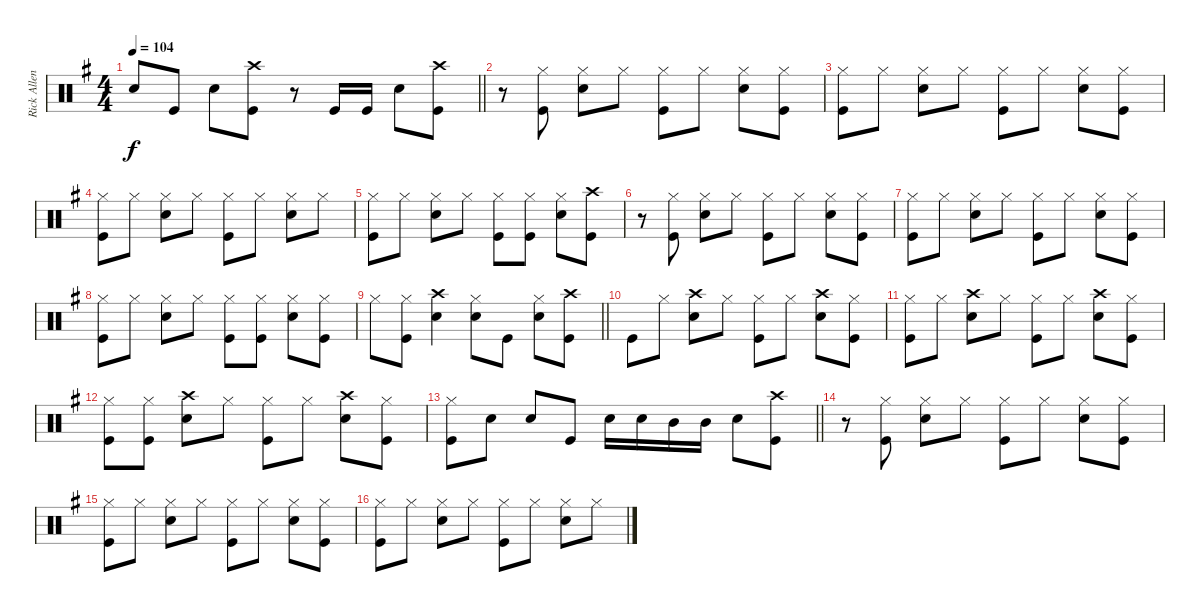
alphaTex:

\track ("Rick Allen" "Rick Allen") {instrument percussion}
\staff {score}
\articulation defaults
\ts (4 4)
\tempo 104
\clef neutral
\barLineRight lightlight
\ks eminor "Snare (hit) 2".8{dy f} "Kick (hit)".8 "Snare (hit) 2".8
("Crash high (hit)" "Kick (hit)").8 r.8 "Kick (hit)".16 "Kick (hit)".16 "Snare (hit) 2".8 ("Crash high (hit)" "Kick (hit)").8 |
r.8 ("Hi-Hat (closed)" "Kick (hit)").8 ("Hi-Hat (closed)" "Snare (hit) 2").8 "Hi-Hat (closed)".8 ("Hi-Hat (closed)" "Kick (hit)").8 "Hi-Hat (closed)".8 ("Hi-Hat (closed)" "Snare (hit) 2").8 ("Hi-Hat (closed)" "Kick (hit)").8 |
("Hi-Hat (closed)" "Kick (hit)").8 "Hi-Hat (closed)".8 ("Hi-Hat (closed)" "Snare (hit) 2").8 "Hi-Hat (closed)".8 ("Hi-Hat (closed)" "Kick (hit)").8 "Hi-Hat (closed)".8 ("Hi-Hat (closed)" "Snare (hit) 2").8 ("Hi-Hat (closed)" "Kick (hit)").8 |
("Hi-Hat (closed)" "Kick (hit)").8 "Hi-Hat (closed)".8 ("Hi-Hat (closed)" "Snare (hit) 2").8 "Hi-Hat (closed)".8 ("Hi-Hat (closed)" "Kick (hit)").8 "Hi-Hat (closed)".8 ("Hi-Hat (closed)" "Snare (hit) 2").8 "Hi-Hat (closed)".8 |
("Hi-Hat (closed)" "Kick (hit)").8 "Hi-Hat (closed)".8 ("Hi-Hat (closed)" "Snare (hit) 2").8 "Hi-Hat (closed)".8 ("Hi-Hat (closed)" "Kick (hit)").8 ("Hi-Hat (closed)" "Kick (hit)").8 ("Hi-Hat (closed)" "Snare (hit) 2").8 ("Crash high (hit)" "Kick (hit)").8 |
r.8 ("Hi-Hat (closed)" "Kick (hit)").8 ("Hi-Hat (closed)" "Snare (hit) 2").8 "Hi-Hat (closed)".8 ("Hi-Hat (closed)" "Kick (hit)").8 "Hi-Hat (closed)".8 ("Hi-Hat (closed)" "Snare (hit) 2").8 ("Hi-Hat (closed)" "Kick (hit)").8 |
("Hi-Hat (closed)" "Kick (hit)").8 "Hi-Hat (closed)".8 ("Hi-Hat (closed)" "Snare (hit) 2").8 "Hi-Hat (closed)".8 ("Hi-Hat (closed)" "Kick (hit)").8 "Hi-Hat (closed)".8 ("Hi-Hat (closed)" "Snare (hit) 2").8 ("Hi-Hat (closed)" "Kick (hit)").8 |
("Hi-Hat (closed)" "Kick (hit)").8 "Hi-Hat (closed)".8 ("Hi-Hat (closed)" "Snare (hit) 2").8 "Hi-Hat (closed)".8 ("Hi-Hat (closed)" "Kick (hit)").8 ("Hi-Hat (closed)" "Kick (hit)").8 ("Hi-Hat (closed)" "Snare (hit) 2").8 ("Hi-Hat (closed)" "Kick (hit)").8 |
\barLineRight lightlight "Hi-Hat (closed)".8
("Hi-Hat (closed)" "Kick (hit)").8 ("Crash high (hit)" "Snare (hit) 2").4 ("Hi-Hat (closed)" "Snare (hit) 2").8 "Kick (hit)".8 ("Hi-Hat (closed)" "Snare (hit) 2").8 ("Crash high (hit)" "Kick (hit)").8 |
"Kick (hit)".8 "Hi-Hat (closed)".8 ("Crash high (hit)" "Snare (hit) 2").8 "Hi-Hat (closed)".8 ("Hi-Hat (closed)" "Kick (hit)").8 "Hi-Hat (closed)".8 ("Crash high (hit)" "Snare (hit) 2").8 ("Hi-Hat (closed)" "Kick (hit)").8 |
("Hi-Hat (closed)" "Kick (hit)").8 "Hi-Hat (closed)".8 ("Crash high (hit)" "Snare (hit) 2").8 "Hi-Hat (closed)".8 ("Hi-Hat (closed)" "Kick (hit)").8 "Hi-Hat (closed)".8 ("Crash high (hit)" "Snare (hit) 2").8 ("Hi-Hat (closed)" "Kick (hit)").8 |
("Hi-Hat (closed)" "Kick (hit)").8 ("Hi-Hat (closed)" "Kick (hit)").8 ("Crash high (hit)" "Snare (hit) 2").8 "Hi-Hat (closed)".8 ("Hi-Hat (closed)" "Kick (hit)").8 "Hi-Hat (closed)".8 ("Crash high (hit)" "Snare (hit) 2").8 ("Hi-Hat (closed)" "Kick (hit)").8 |
\barLineRight lightlight
("Hi-Hat (closed)" "Kick (hit)").8 "Snare (hit) 2".8 "Snare (hit) 2".8 "Kick (hit)".8 "Snare (hit) 2".16 "Snare (hit) 2".16 "Mid Tom (hit)".16 "Mid Tom (hit)".16 "Snare (hit) 2".8 ("Crash high (hit)" "Kick (hit)").8 |
r.8 ("Hi-Hat (closed)" "Kick (hit)").8 ("Hi-Hat (closed)" "Snare (hit) 2").8 "Hi-Hat (closed)".8 ("Hi-Hat (closed)" "Kick (hit)").8 "Hi-Hat (closed)".8 ("Hi-Hat (closed)" "Snare (hit) 2").8 ("Hi-Hat (closed)" "Kick (hit)").8 |
("Hi-Hat (closed)" "Kick (hit)").8 "Hi-Hat (closed)".8 ("Hi-Hat (closed)" "Snare (hit) 2").8 "Hi-Hat (closed)".8 ("Hi-Hat (closed)" "Kick (hit)").8 "Hi-Hat (closed)".8 ("Hi-Hat (closed)" "Snare (hit) 2").8 ("Hi-Hat (closed)" "Kick (hit)").8 |
("Hi-Hat (closed)" "Kick (hit)").8 "Hi-Hat (closed)".8 ("Hi-Hat (closed)" "Snare (hit) 2").8 "Hi-Hat (closed)".8 ("Hi-Hat (closed)" "Kick (hit)").8 "Hi-Hat (closed)".8 ("Hi-Hat (closed)" "Snare (hit) 2").8 "Hi-Hat (closed)".8
